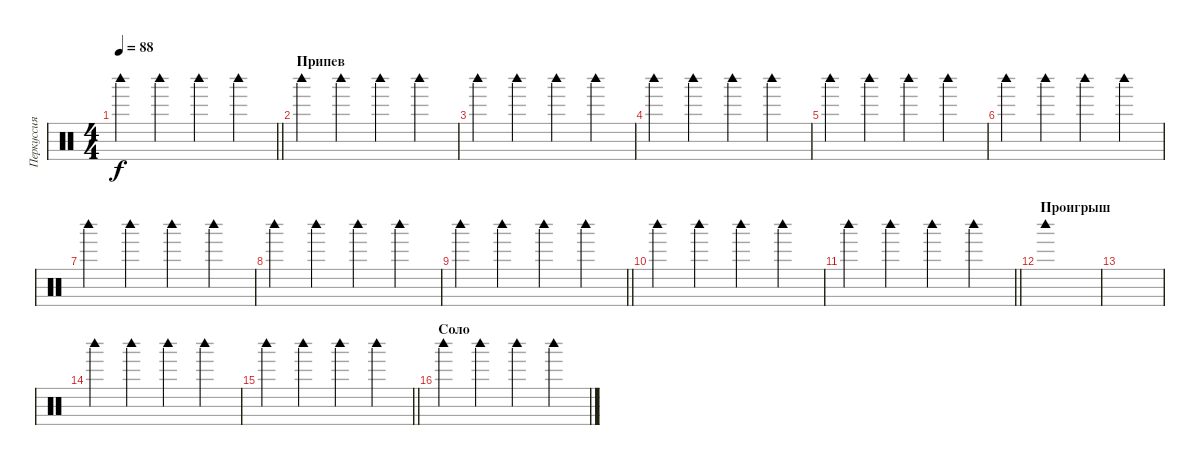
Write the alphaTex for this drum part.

\track ("Перкуссия 2" "Перкуссия ") {instrument percussion}
\staff {score}
\articulation defaults
\ts (4 4)
\tempo 88
\clef neutral
\barLineRight lightlight
\ks c "Woodblock high (hit)".4{dy f} "Woodblock high (hit)".4 "Woodblock high (hit)".4 "Woodblock high (hit)".4
|
\section ("" "Припев")
"Woodblock high (hit)".4 "Woodblock high (hit)".4 "Woodblock high (hit)".4 "Woodblock high (hit)".4 |
"Woodblock high (hit)".4 "Woodblock high (hit)".4 "Woodblock high (hit)".4 "Woodblock high (hit)".4 |
"Woodblock high (hit)".4 "Woodblock high (hit)".4 "Woodblock high (hit)".4 "Woodblock high (hit)".4 |
"Woodblock high (hit)".4 "Woodblock high (hit)".4 "Woodblock high (hit)".4 "Woodblock high (hit)".4 |
"Woodblock high (hit)".4 "Woodblock high (hit)".4 "Woodblock high (hit)".4 "Woodblock high (hit)".4 |
"Woodblock high (hit)".4 "Woodblock high (hit)".4 "Woodblock high (hit)".4 "Woodblock high (hit)".4 |
"Woodblock high (hit)".4 "Woodblock high (hit)".4 "Woodblock high (hit)".4 "Woodblock high (hit)".4 |
\barLineRight lightlight "Woodblock high (hit)".4 "Woodblock high (hit)".4 "Woodblock high (hit)".4 "Woodblock high (hit)".4
|
"Woodblock high (hit)".4 "Woodblock high (hit)".4 "Woodblock high (hit)".4 "Woodblock high (hit)".4 |
\barLineRight lightlight "Woodblock high (hit)".4 "Woodblock high (hit)".4 "Woodblock high (hit)".4 "Woodblock high (hit)".4
|
\section ("" "Проигрыш")
"Woodblock high (hit)".1 |
|
"Woodblock high (hit)".4 "Woodblock high (hit)".4 "Woodblock high (hit)".4 "Woodblock high (hit)".4 |
\barLineRight lightlight "Woodblock high (hit)".4 "Woodblock high (hit)".4 "Woodblock high (hit)".4 "Woodblock high (hit)".4
|
\section ("" "Соло")
"Woodblock high (hit)".4 "Woodblock high (hit)".4 "Woodblock high (hit)".4 "Woodblock high (hit)".4
